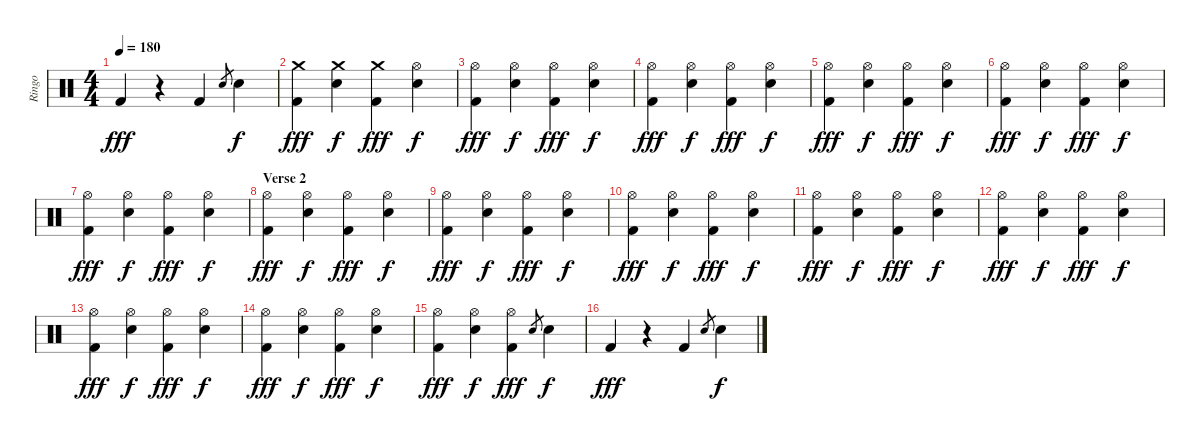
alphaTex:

\track ("Ringo" "Ringo") {instrument percussion}
\staff {score}
\articulation defaults
\ts (4 4)
\tempo 180
\clef neutral
\ks c "Kick (hit) 2".4{dy fff}
r.4 "Kick (hit) 2".4 "Snare (hit) 2".8{gr} "Snare (hit) 2".4{dy f} |
("Crash medium (hit)" "Kick (hit) 2").4{dy fff} ("Crash medium (hit)" "Snare (hit) 2").4{dy f} ("Crash medium (hit)" "Kick (hit) 2").4{dy fff} ("Hi-Hat (open)" "Snare (hit) 2").4{dy f} |
("Hi-Hat (open)" "Kick (hit) 2").4{dy fff} ("Hi-Hat (open)" "Snare (hit) 2").4{dy f} ("Hi-Hat (open)" "Kick (hit) 2").4{dy fff} ("Hi-Hat (open)" "Snare (hit) 2").4{dy f} |
("Hi-Hat (open)" "Kick (hit) 2").4{dy fff} ("Hi-Hat (open)" "Snare (hit) 2").4{dy f} ("Hi-Hat (open)" "Kick (hit) 2").4{dy fff} ("Hi-Hat (open)" "Snare (hit) 2").4{dy f} |
("Hi-Hat (open)" "Kick (hit) 2").4{dy fff} ("Hi-Hat (open)" "Snare (hit) 2").4{dy f} ("Hi-Hat (open)" "Kick (hit) 2").4{dy fff} ("Hi-Hat (open)" "Snare (hit) 2").4{dy f} |
("Hi-Hat (open)" "Kick (hit) 2").4{dy fff} ("Hi-Hat (open)" "Snare (hit) 2").4{dy f} ("Hi-Hat (open)" "Kick (hit) 2").4{dy fff} ("Hi-Hat (open)" "Snare (hit) 2").4{dy f} |
("Hi-Hat (open)" "Kick (hit) 2").4{dy fff} ("Hi-Hat (open)" "Snare (hit) 2").4{dy f} ("Hi-Hat (open)" "Kick (hit) 2").4{dy fff} ("Hi-Hat (open)" "Snare (hit) 2").4{dy f} |
\section ("" "Verse 2")
("Hi-Hat (open)" "Kick (hit) 2").4{dy fff} ("Hi-Hat (open)" "Snare (hit) 2").4{dy f} ("Hi-Hat (open)" "Kick (hit) 2").4{dy fff} ("Hi-Hat (open)" "Snare (hit) 2").4{dy f} |
("Hi-Hat (open)" "Kick (hit) 2").4{dy fff} ("Hi-Hat (open)" "Snare (hit) 2").4{dy f} ("Hi-Hat (open)" "Kick (hit) 2").4{dy fff} ("Hi-Hat (open)" "Snare (hit) 2").4{dy f} |
("Hi-Hat (open)" "Kick (hit) 2").4{dy fff} ("Hi-Hat (open)" "Snare (hit) 2").4{dy f} ("Hi-Hat (open)" "Kick (hit) 2").4{dy fff} ("Hi-Hat (open)" "Snare (hit) 2").4{dy f} |
("Hi-Hat (open)" "Kick (hit) 2").4{dy fff} ("Hi-Hat (open)" "Snare (hit) 2").4{dy f} ("Hi-Hat (open)" "Kick (hit) 2").4{dy fff} ("Hi-Hat (open)" "Snare (hit) 2").4{dy f} |
("Hi-Hat (open)" "Kick (hit) 2").4{dy fff} ("Hi-Hat (open)" "Snare (hit) 2").4{dy f} ("Hi-Hat (open)" "Kick (hit) 2").4{dy fff} ("Hi-Hat (open)" "Snare (hit) 2").4{dy f} |
("Hi-Hat (open)" "Kick (hit) 2").4{dy fff} ("Hi-Hat (open)" "Snare (hit) 2").4{dy f} ("Hi-Hat (open)" "Kick (hit) 2").4{dy fff} ("Hi-Hat (open)" "Snare (hit) 2").4{dy f} |
("Hi-Hat (open)" "Kick (hit) 2").4{dy fff} ("Hi-Hat (open)" "Snare (hit) 2").4{dy f} ("Hi-Hat (open)" "Kick (hit) 2").4{dy fff} ("Hi-Hat (open)" "Snare (hit) 2").4{dy f} |
("Hi-Hat (open)" "Kick (hit) 2").4{dy fff} ("Hi-Hat (open)" "Snare (hit) 2").4{dy f} ("Hi-Hat (open)" "Kick (hit) 2").4{dy fff} "Snare (hit) 2".8{gr} "Snare (hit) 2".4{dy f} |
"Kick (hit) 2".4{dy fff} r.4 "Kick (hit) 2".4 "Snare (hit) 2".8{gr} "Snare (hit) 2".4{dy f}
